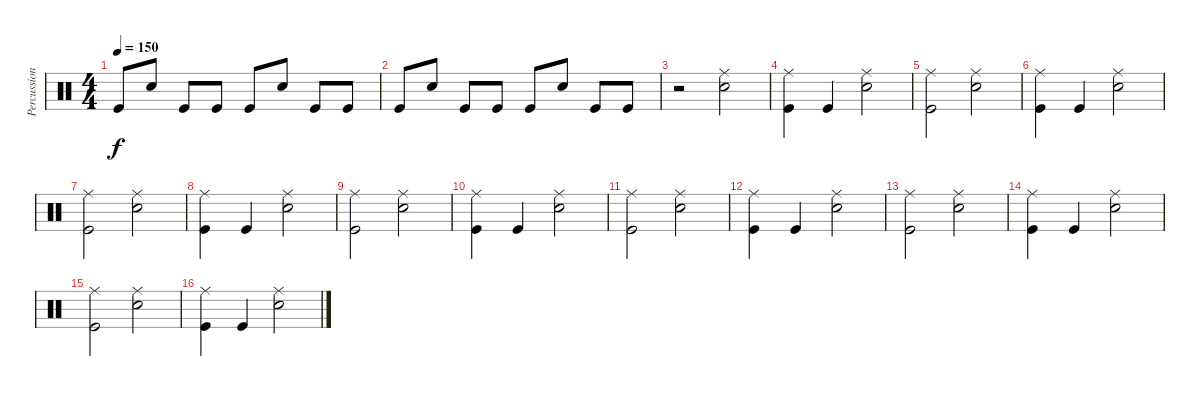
\track ("Percussion" "Percussion") {instrument percussion}
\staff {score}
\articulation defaults
\ts (4 4)
\tempo 150
\clef neutral
\ks c "Kick (hit)".8{dy f} "Electric Snare (hit)".8 "Kick (hit)".8 "Kick (hit)".8 "Kick (hit)".8 "Electric Snare (hit)".8 "Kick (hit)".8 "Kick (hit)".8
|
"Kick (hit)".8 "Electric Snare (hit)".8 "Kick (hit)".8 "Kick (hit)".8 "Kick (hit)".8 "Electric Snare (hit)".8 "Kick (hit)".8 "Kick (hit)".8 |
r.2 ("Ride (middle)" "Electric Snare (hit)").2 |
("Ride (middle)" "Kick (hit)").4 "Kick (hit)".4 ("Ride (middle)" "Electric Snare (hit)").2 |
("Ride (middle)" "Kick (hit)").2 ("Ride (middle)" "Electric Snare (hit)").2 |
("Ride (middle)" "Kick (hit)").4 "Kick (hit)".4 ("Ride (middle)" "Electric Snare (hit)").2 |
("Ride (middle)" "Kick (hit)").2 ("Ride (middle)" "Electric Snare (hit)").2 |
("Ride (middle)" "Kick (hit)").4 "Kick (hit)".4 ("Ride (middle)" "Electric Snare (hit)").2 |
("Ride (middle)" "Kick (hit)").2 ("Ride (middle)" "Electric Snare (hit)").2 |
("Ride (middle)" "Kick (hit)").4 "Kick (hit)".4 ("Ride (middle)" "Electric Snare (hit)").2 |
("Ride (middle)" "Kick (hit)").2 ("Ride (middle)" "Electric Snare (hit)").2 |
("Ride (middle)" "Kick (hit)").4 "Kick (hit)".4 ("Ride (middle)" "Electric Snare (hit)").2 |
("Ride (middle)" "Kick (hit)").2 ("Ride (middle)" "Electric Snare (hit)").2 |
("Ride (middle)" "Kick (hit)").4 "Kick (hit)".4 ("Ride (middle)" "Electric Snare (hit)").2 |
("Ride (middle)" "Kick (hit)").2 ("Ride (middle)" "Electric Snare (hit)").2 |
("Ride (middle)" "Kick (hit)").4 "Kick (hit)".4 ("Ride (middle)" "Electric Snare (hit)").2
